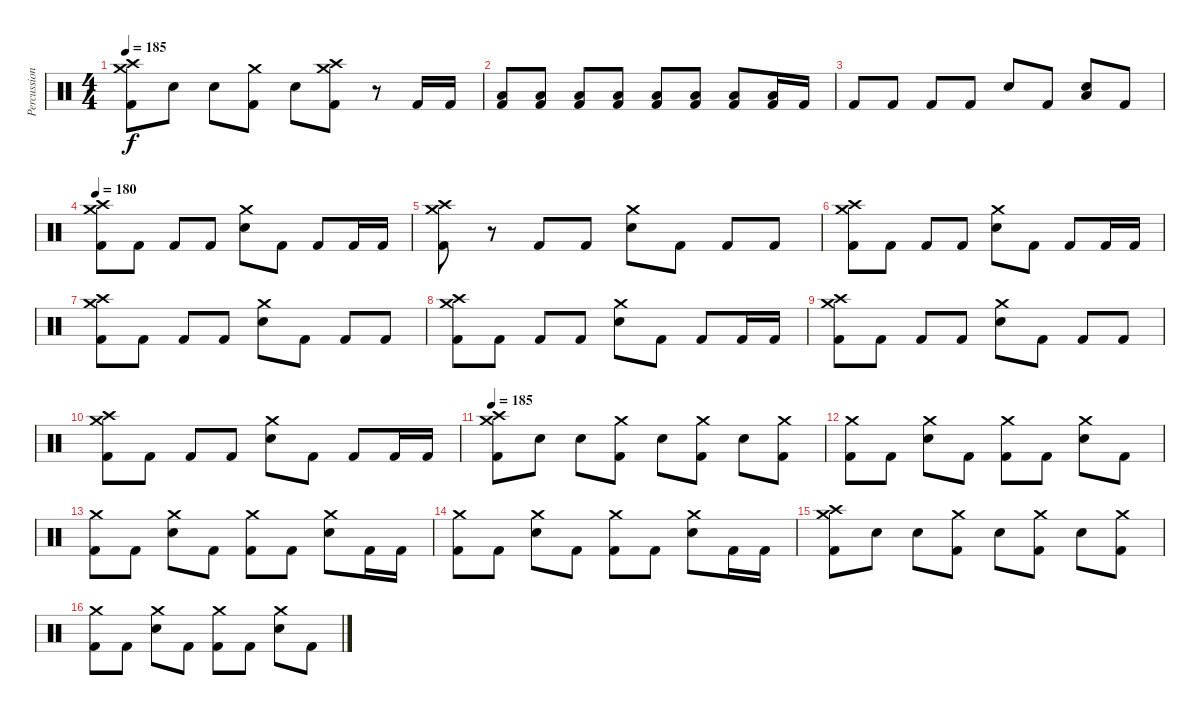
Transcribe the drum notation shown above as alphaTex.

\track ("Percussion" "Percussion") {instrument percussion}
\staff {score}
\articulation defaults
\ts (4 4)
\tempo 185
\clef neutral
\ks c
("Kick (hit) 2" "Crash medium (hit)" "Crash high (hit)").8{dy f} "Electric Snare (hit)".8 "Electric Snare (hit)".8 ("Kick (hit) 2" "Crash medium (hit)").8 "Electric Snare (hit)".8 ("Kick (hit) 2" "Crash medium (hit)" "Crash high (hit)").8 r.8 "Kick (hit) 2".16 "Kick (hit) 2".16 |
("Kick (hit) 2" "Low Tom (hit)").8 ("Kick (hit) 2" "Low Tom (hit)").8 ("Kick (hit) 2" "Low Tom (hit)").8 ("Kick (hit) 2" "Low Tom (hit)").8 ("Kick (hit) 2" "Low Tom (hit)").8 ("Kick (hit) 2" "Low Tom (hit)").8 ("Kick (hit) 2" "Low Tom (hit)").8 ("Kick (hit) 2" "Low Tom (hit)").16 "Kick (hit) 2".16 |
"Kick (hit) 2".8 "Kick (hit) 2".8 "Kick (hit) 2".8 "Kick (hit) 2".8 "Electric Snare (hit)".8 "Kick (hit) 2".8 ("Electric Snare (hit)" "Low Tom (hit)").8 "Kick (hit) 2".8 |
\tempo 180
("Kick (hit) 2" "Crash medium (hit)" "Crash high (hit)").8 "Kick (hit) 2".8 "Kick (hit) 2".8 "Kick (hit) 2".8 ("Electric Snare (hit)" "Crash medium (hit)").8 "Kick (hit) 2".8 "Kick (hit) 2".8 "Kick (hit) 2".16 "Kick (hit) 2".16 |
("Kick (hit) 2" "Crash medium (hit)" "Crash high (hit)").8 r.8 "Kick (hit) 2".8 "Kick (hit) 2".8 ("Electric Snare (hit)" "Crash medium (hit)").8 "Kick (hit) 2".8 "Kick (hit) 2".8 "Kick (hit) 2".8 |
("Kick (hit) 2" "Crash medium (hit)" "Crash high (hit)").8 "Kick (hit) 2".8 "Kick (hit) 2".8 "Kick (hit) 2".8 ("Electric Snare (hit)" "Crash medium (hit)").8 "Kick (hit) 2".8 "Kick (hit) 2".8 "Kick (hit) 2".16 "Kick (hit) 2".16 |
("Kick (hit) 2" "Crash medium (hit)" "Crash high (hit)").8 "Kick (hit) 2".8 "Kick (hit) 2".8 "Kick (hit) 2".8 ("Electric Snare (hit)" "Crash medium (hit)").8 "Kick (hit) 2".8 "Kick (hit) 2".8 "Kick (hit) 2".8 |
("Kick (hit) 2" "Crash medium (hit)" "Crash high (hit)").8 "Kick (hit) 2".8 "Kick (hit) 2".8 "Kick (hit) 2".8 ("Electric Snare (hit)" "Crash medium (hit)").8 "Kick (hit) 2".8 "Kick (hit) 2".8 "Kick (hit) 2".16 "Kick (hit) 2".16 |
("Kick (hit) 2" "Crash medium (hit)" "Crash high (hit)").8 "Kick (hit) 2".8 "Kick (hit) 2".8 "Kick (hit) 2".8 ("Electric Snare (hit)" "Crash medium (hit)").8 "Kick (hit) 2".8 "Kick (hit) 2".8 "Kick (hit) 2".8 |
("Kick (hit) 2" "Crash medium (hit)" "Crash high (hit)").8 "Kick (hit) 2".8 "Kick (hit) 2".8 "Kick (hit) 2".8 ("Electric Snare (hit)" "Crash medium (hit)").8 "Kick (hit) 2".8 "Kick (hit) 2".8 "Kick (hit) 2".16 "Kick (hit) 2".16 |
\tempo 185
("Kick (hit) 2" "Crash medium (hit)" "Crash high (hit)").8 "Electric Snare (hit)".8 "Electric Snare (hit)".8 ("Kick (hit) 2" "Crash medium (hit)").8 "Electric Snare (hit)".8 ("Kick (hit) 2" "Crash medium (hit)").8 "Electric Snare (hit)".8 ("Kick (hit) 2" "Crash medium (hit)").8 |
("Kick (hit) 2" "Crash medium (hit)").8 "Kick (hit) 2".8 ("Electric Snare (hit)" "Crash medium (hit)").8 "Kick (hit) 2".8 ("Kick (hit) 2" "Crash medium (hit)").8 "Kick (hit) 2".8 ("Electric Snare (hit)" "Crash medium (hit)").8 "Kick (hit) 2".8 |
("Kick (hit) 2" "Crash medium (hit)").8 "Kick (hit) 2".8 ("Electric Snare (hit)" "Crash medium (hit)").8 "Kick (hit) 2".8 ("Kick (hit) 2" "Crash medium (hit)").8 "Kick (hit) 2".8 ("Electric Snare (hit)" "Crash medium (hit)").8 "Kick (hit) 2".16 "Kick (hit) 2".16 |
("Kick (hit) 2" "Crash medium (hit)").8 "Kick (hit) 2".8 ("Electric Snare (hit)" "Crash medium (hit)").8 "Kick (hit) 2".8 ("Kick (hit) 2" "Crash medium (hit)").8 "Kick (hit) 2".8 ("Electric Snare (hit)" "Crash medium (hit)").8 "Kick (hit) 2".16 "Kick (hit) 2".16 |
("Kick (hit) 2" "Crash medium (hit)" "Crash high (hit)").8 "Electric Snare (hit)".8 "Electric Snare (hit)".8 ("Kick (hit) 2" "Crash medium (hit)").8 "Electric Snare (hit)".8 ("Kick (hit) 2" "Crash medium (hit)").8 "Electric Snare (hit)".8 ("Kick (hit) 2" "Crash medium (hit)").8 |
("Kick (hit) 2" "Crash medium (hit)").8 "Kick (hit) 2".8 ("Electric Snare (hit)" "Crash medium (hit)").8 "Kick (hit) 2".8 ("Kick (hit) 2" "Crash medium (hit)").8 "Kick (hit) 2".8 ("Electric Snare (hit)" "Crash medium (hit)").8 "Kick (hit) 2".8
